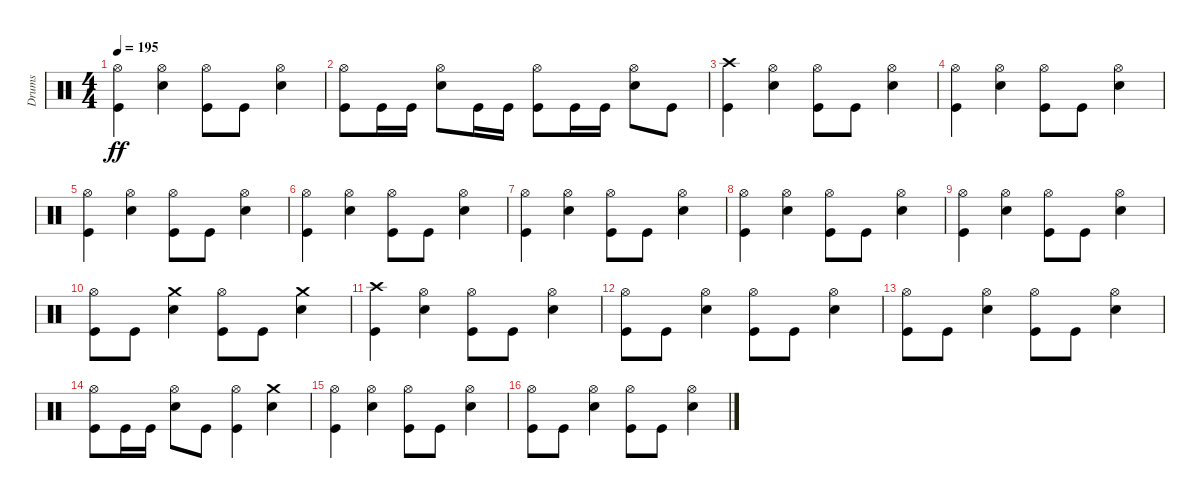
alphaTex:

\track ("Drums" "Drums") {instrument percussion}
\staff {score}
\articulation defaults
\ts (4 4)
\tempo 195
\clef neutral
\ks c
("Hi-Hat (open)" "Kick (hit)").4{dy ff} ("Hi-Hat (open)" "Snare (hit) 2").4 ("Hi-Hat (open)" "Kick (hit)").8 "Kick (hit)".8 ("Hi-Hat (open)" "Snare (hit) 2").4 |
("Hi-Hat (open)" "Kick (hit)").8 "Kick (hit)".16 "Kick (hit)".16 ("Hi-Hat (open)" "Snare (hit) 2").8 "Kick (hit)".16 "Kick (hit)".16 ("Hi-Hat (open)" "Kick (hit)").8 "Kick (hit)".16 "Kick (hit)".16 ("Hi-Hat (open)" "Snare (hit) 2").8 "Kick (hit)".8 |
("Crash high (hit)" "Kick (hit)").4 ("Hi-Hat (open)" "Snare (hit) 2").4 ("Hi-Hat (open)" "Kick (hit)").8 "Kick (hit)".8 ("Hi-Hat (open)" "Snare (hit) 2").4 |
("Hi-Hat (open)" "Kick (hit)").4 ("Hi-Hat (open)" "Snare (hit) 2").4 ("Hi-Hat (open)" "Kick (hit)").8 "Kick (hit)".8 ("Hi-Hat (open)" "Snare (hit) 2").4 |
("Hi-Hat (open)" "Kick (hit)").4 ("Hi-Hat (open)" "Snare (hit) 2").4 ("Hi-Hat (open)" "Kick (hit)").8 "Kick (hit)".8 ("Hi-Hat (open)" "Snare (hit) 2").4 |
("Hi-Hat (open)" "Kick (hit)").4 ("Hi-Hat (open)" "Snare (hit) 2").4 ("Hi-Hat (open)" "Kick (hit)").8 "Kick (hit)".8 ("Hi-Hat (open)" "Snare (hit) 2").4 |
("Hi-Hat (open)" "Kick (hit)").4 ("Hi-Hat (open)" "Snare (hit) 2").4 ("Hi-Hat (open)" "Kick (hit)").8 "Kick (hit)".8 ("Hi-Hat (open)" "Snare (hit) 2").4 |
("Hi-Hat (open)" "Kick (hit)").4 ("Hi-Hat (open)" "Snare (hit) 2").4 ("Hi-Hat (open)" "Kick (hit)").8 "Kick (hit)".8 ("Hi-Hat (open)" "Snare (hit) 2").4 |
("Hi-Hat (open)" "Kick (hit)").4 ("Hi-Hat (open)" "Snare (hit) 2").4 ("Hi-Hat (open)" "Kick (hit)").8 "Kick (hit)".8 ("Hi-Hat (open)" "Snare (hit) 2").4 |
("Hi-Hat (open)" "Kick (hit)").8 "Kick (hit)".8 ("Crash medium (hit)" "Snare (hit) 2").4 ("Hi-Hat (open)" "Kick (hit)").8 "Kick (hit)".8 ("Crash medium (hit)" "Snare (hit) 2").4 |
("Crash high (hit)" "Kick (hit)").4 ("Hi-Hat (open)" "Snare (hit) 2").4 ("Hi-Hat (open)" "Kick (hit)").8 "Kick (hit)".8 ("Hi-Hat (open)" "Snare (hit) 2").4 |
("Hi-Hat (open)" "Kick (hit)").8 "Kick (hit)".8 ("Hi-Hat (open)" "Snare (hit) 2").4 ("Hi-Hat (open)" "Kick (hit)").8 "Kick (hit)".8 ("Hi-Hat (open)" "Snare (hit) 2").4 |
("Hi-Hat (open)" "Kick (hit)").8 "Kick (hit)".8 ("Hi-Hat (open)" "Snare (hit) 2").4 ("Hi-Hat (open)" "Kick (hit)").8 "Kick (hit)".8 ("Hi-Hat (open)" "Snare (hit) 2").4 |
("Hi-Hat (open)" "Kick (hit)").8 "Kick (hit)".16 "Kick (hit)".16 ("Hi-Hat (open)" "Snare (hit) 2").8 "Kick (hit)".8 ("Hi-Hat (open)" "Kick (hit)").4 ("Crash medium (hit)" "Snare (hit) 2").4 |
("Hi-Hat (open)" "Kick (hit)").4 ("Hi-Hat (open)" "Snare (hit) 2").4 ("Hi-Hat (open)" "Kick (hit)").8 "Kick (hit)".8 ("Hi-Hat (open)" "Snare (hit) 2").4 |
("Hi-Hat (open)" "Kick (hit)").8 "Kick (hit)".8 ("Hi-Hat (open)" "Snare (hit) 2").4 ("Hi-Hat (open)" "Kick (hit)").8 "Kick (hit)".8 ("Hi-Hat (open)" "Snare (hit) 2").4
